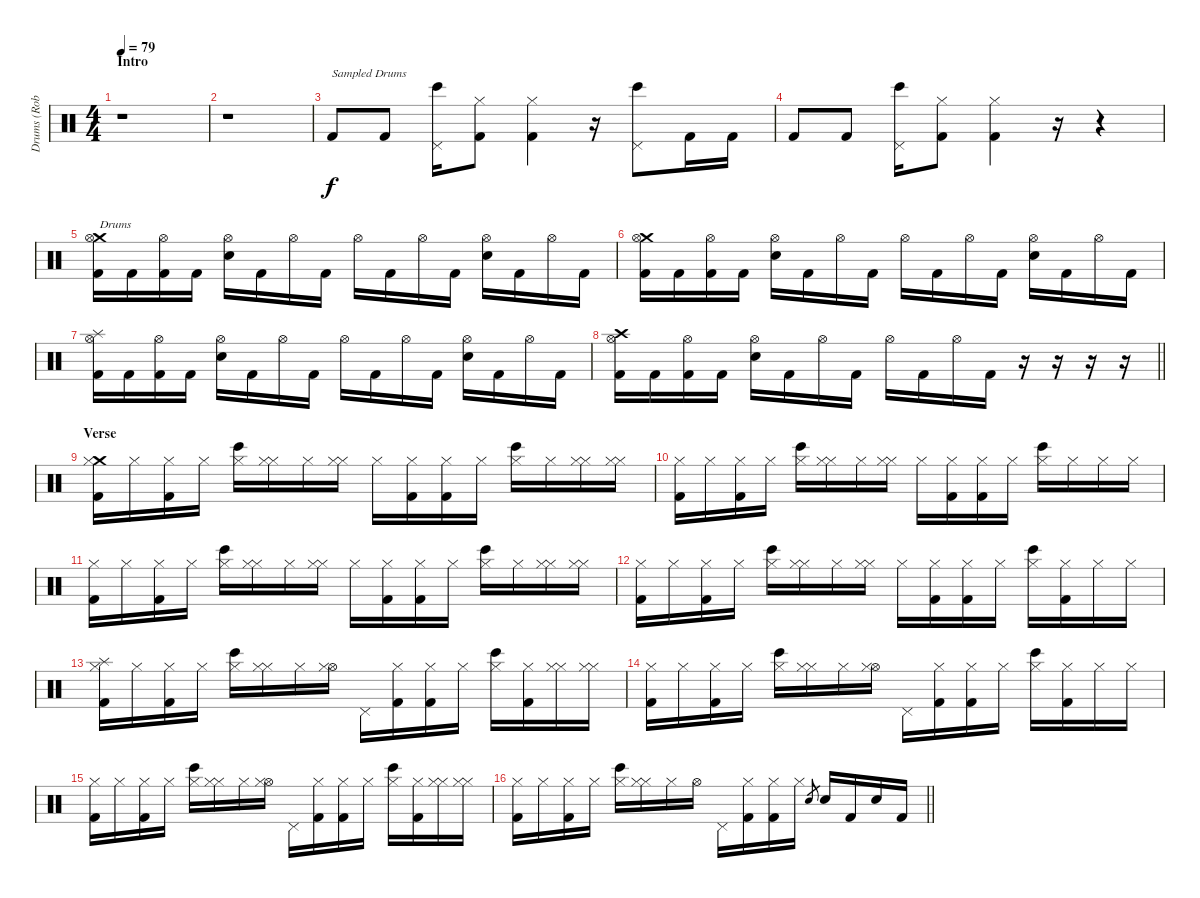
\track ("Drums (Rob Bourdon)" "Drums (Rob") {instrument percussion}
\staff {score}
\articulation defaults
\ts (4 4)
\section ("" "Intro")
\tempo 79
\clef neutral
\ks c
r.1{dy f} |
r.1 |
"Kick (hit) 2".8{txt "Sampled Drums"} "Kick (hit) 2".8 ("Pedal Hi-Hat (hit)" "Bongo High (hit)").16 ("Hi-Hat (closed)" "Kick (hit) 2").8 ("Hi-Hat (closed)" "Kick (hit) 2").4 r.16 ("Pedal Hi-Hat (hit)" "Bongo High (hit)").8 "Kick (hit) 2".16 "Kick (hit) 2".16 |
"Kick (hit) 2".8 "Kick (hit) 2".8 ("Pedal Hi-Hat (hit)" "Bongo High (hit)").16 ("Hi-Hat (closed)" "Kick (hit) 2").8 ("Hi-Hat (closed)" "Kick (hit) 2").4 r.16 r.4 |
("Crash medium (hit)" "Hi-Hat (open)" "Kick (hit) 2").16{txt "Drums"} "Kick (hit) 2".16 ("Hi-Hat (open)" "Kick (hit) 2").16 "Kick (hit) 2".16 ("Hi-Hat (open)" "Electric Snare (hit)").16 "Kick (hit) 2".16 "Hi-Hat (open)".16 "Kick (hit) 2".16 "Hi-Hat (open)".16 "Kick (hit) 2".16 "Hi-Hat (open)".16 "Kick (hit) 2".16 ("Hi-Hat (open)" "Electric Snare (hit)").16 "Kick (hit) 2".16 "Hi-Hat (open)".16 "Kick (hit) 2".16 |
("Crash medium (hit)" "Hi-Hat (open)" "Kick (hit) 2").16 "Kick (hit) 2".16 ("Hi-Hat (open)" "Kick (hit) 2").16 "Kick (hit) 2".16 ("Hi-Hat (open)" "Electric Snare (hit)").16 "Kick (hit) 2".16 "Hi-Hat (open)".16 "Kick (hit) 2".16 "Hi-Hat (open)".16 "Kick (hit) 2".16 "Hi-Hat (open)".16 "Kick (hit) 2".16 ("Hi-Hat (open)" "Electric Snare (hit)").16 "Kick (hit) 2".16 "Hi-Hat (open)".16 "Kick (hit) 2".16 |
("Splash (hit)" "Hi-Hat (open)" "Kick (hit) 2").16 "Kick (hit) 2".16 ("Hi-Hat (open)" "Kick (hit) 2").16 "Kick (hit) 2".16 ("Hi-Hat (open)" "Electric Snare (hit)").16 "Kick (hit) 2".16 "Hi-Hat (open)".16 "Kick (hit) 2".16 "Hi-Hat (open)".16 "Kick (hit) 2".16 "Hi-Hat (open)".16 "Kick (hit) 2".16 ("Hi-Hat (open)" "Electric Snare (hit)").16 "Kick (hit) 2".16 "Hi-Hat (open)".16 "Kick (hit) 2".16 |
\barLineRight lightlight
("Crash high (hit)" "Hi-Hat (open)" "Kick (hit) 2").16 "Kick (hit) 2".16 ("Hi-Hat (open)" "Kick (hit) 2").16 "Kick (hit) 2".16 ("Hi-Hat (open)" "Electric Snare (hit)").16 "Kick (hit) 2".16 "Hi-Hat (open)".16 "Kick (hit) 2".16 "Hi-Hat (open)".16 "Kick (hit) 2".16 "Hi-Hat (open)".16 "Kick (hit) 2".16 r.16 r.16 r.16 r.16 |
\section ("" "Verse")
("Crash medium (hit)" "Hi-Hat (closed)" "Kick (hit) 2").16 "Hi-Hat (closed)".16 ("Hi-Hat (closed)" "Kick (hit) 2").16 "Hi-Hat (closed)".16 ("Hi-Hat (closed)" "Bongo High (hit)").16 ("Hi-Hat (closed)" "Hi-Hat (closed)").16 "Hi-Hat (closed)".16 ("Hi-Hat (closed)" "Hi-Hat (closed)").16 "Hi-Hat (closed)".16 ("Hi-Hat (closed)" "Kick (hit) 2").16 ("Hi-Hat (closed)" "Kick (hit) 2").16 "Hi-Hat (closed)".16 ("Hi-Hat (closed)" "Bongo High (hit)").16 "Hi-Hat (closed)".16 ("Hi-Hat (closed)" "Hi-Hat (closed)").16 ("Hi-Hat (closed)" "Hi-Hat (closed)").16 |
("Hi-Hat (closed)" "Kick (hit) 2").16 "Hi-Hat (closed)".16 ("Hi-Hat (closed)" "Kick (hit) 2").16 "Hi-Hat (closed)".16 ("Hi-Hat (closed)" "Bongo High (hit)").16 ("Hi-Hat (closed)" "Hi-Hat (closed)").16 "Hi-Hat (closed)".16 ("Hi-Hat (closed)" "Hi-Hat (closed)").16 "Hi-Hat (closed)".16 ("Hi-Hat (closed)" "Kick (hit) 2").16 ("Hi-Hat (closed)" "Kick (hit) 2").16 "Hi-Hat (closed)".16 ("Hi-Hat (closed)" "Bongo High (hit)").16 "Hi-Hat (closed)".16 "Hi-Hat (closed)".16 "Hi-Hat (closed)".16 |
("Hi-Hat (closed)" "Kick (hit) 2").16 "Hi-Hat (closed)".16 ("Hi-Hat (closed)" "Kick (hit) 2").16 "Hi-Hat (closed)".16 ("Hi-Hat (closed)" "Bongo High (hit)").16 ("Hi-Hat (closed)" "Hi-Hat (closed)").16 "Hi-Hat (closed)".16 ("Hi-Hat (closed)" "Hi-Hat (closed)").16 "Hi-Hat (closed)".16 ("Hi-Hat (closed)" "Kick (hit) 2").16 ("Hi-Hat (closed)" "Kick (hit) 2").16 "Hi-Hat (closed)".16 ("Hi-Hat (closed)" "Bongo High (hit)").16 "Hi-Hat (closed)".16 ("Hi-Hat (closed)" "Hi-Hat (closed)").16 ("Hi-Hat (closed)" "Hi-Hat (closed)").16 |
("Hi-Hat (closed)" "Kick (hit) 2").16 "Hi-Hat (closed)".16 ("Hi-Hat (closed)" "Kick (hit) 2").16 "Hi-Hat (closed)".16 ("Hi-Hat (closed)" "Bongo High (hit)").16 ("Hi-Hat (closed)" "Hi-Hat (closed)").16 "Hi-Hat (closed)".16 ("Hi-Hat (closed)" "Hi-Hat (closed)").16 "Hi-Hat (closed)".16 ("Hi-Hat (closed)" "Kick (hit) 2").16 ("Hi-Hat (closed)" "Kick (hit) 2").16 "Hi-Hat (closed)".16 ("Hi-Hat (closed)" "Bongo High (hit)").16 ("Hi-Hat (closed)" "Kick (hit) 2").16 "Hi-Hat (closed)".16 "Hi-Hat (closed)".16 |
("Splash (hit)" "Hi-Hat (closed)" "Kick (hit) 2").16 "Hi-Hat (closed)".16 ("Hi-Hat (closed)" "Kick (hit) 2").16 "Hi-Hat (closed)".16 ("Hi-Hat (closed)" "Bongo High (hit)").16 ("Hi-Hat (closed)" "Hi-Hat (closed)").16 "Hi-Hat (closed)".16 ("Hi-Hat (open)" "Hi-Hat (closed)").16 "Pedal Hi-Hat (hit)".16 ("Hi-Hat (closed)" "Kick (hit) 2").16 ("Hi-Hat (closed)" "Kick (hit) 2").16 "Hi-Hat (closed)".16 ("Hi-Hat (closed)" "Bongo High (hit)").16 ("Hi-Hat (closed)" "Kick (hit) 2").16 ("Hi-Hat (closed)" "Hi-Hat (closed)").16 ("Hi-Hat (closed)" "Hi-Hat (closed)").16 |
("Hi-Hat (closed)" "Kick (hit) 2").16 "Hi-Hat (closed)".16 ("Hi-Hat (closed)" "Kick (hit) 2").16 "Hi-Hat (closed)".16 ("Hi-Hat (closed)" "Bongo High (hit)").16 ("Hi-Hat (closed)" "Hi-Hat (closed)").16 "Hi-Hat (closed)".16 ("Hi-Hat (open)" "Hi-Hat (closed)").16 "Pedal Hi-Hat (hit)".16 ("Hi-Hat (closed)" "Kick (hit) 2").16 ("Hi-Hat (closed)" "Kick (hit) 2").16 "Hi-Hat (closed)".16 ("Hi-Hat (closed)" "Bongo High (hit)").16 ("Hi-Hat (closed)" "Kick (hit) 2").16 "Hi-Hat (closed)".16 "Hi-Hat (closed)".16 |
("Hi-Hat (closed)" "Kick (hit) 2").16 "Hi-Hat (closed)".16 ("Hi-Hat (closed)" "Kick (hit) 2").16 "Hi-Hat (closed)".16 ("Hi-Hat (closed)" "Bongo High (hit)").16 ("Hi-Hat (closed)" "Hi-Hat (closed)").16 "Hi-Hat (closed)".16 ("Hi-Hat (open)" "Hi-Hat (closed)").16 "Pedal Hi-Hat (hit)".16 ("Hi-Hat (closed)" "Kick (hit) 2").16 ("Hi-Hat (closed)" "Kick (hit) 2").16 "Hi-Hat (closed)".16 ("Hi-Hat (closed)" "Bongo High (hit)").16 ("Hi-Hat (closed)" "Kick (hit) 2").16 ("Hi-Hat (closed)" "Hi-Hat (closed)").16 ("Hi-Hat (closed)" "Hi-Hat (closed)").16 |
\barLineRight lightlight
("Hi-Hat (closed)" "Kick (hit) 2").16 "Hi-Hat (closed)".16 ("Hi-Hat (closed)" "Kick (hit) 2").16 "Hi-Hat (closed)".16 ("Hi-Hat (closed)" "Bongo High (hit)").16 ("Hi-Hat (closed)" "Hi-Hat (closed)").16 "Hi-Hat (closed)".16 "Hi-Hat (open)".16 "Pedal Hi-Hat (hit)".16 ("Hi-Hat (closed)" "Kick (hit) 2").16 ("Hi-Hat (closed)" "Kick (hit) 2").16 "Hi-Hat (closed)".16 "Electric Snare (hit)".8{gr} "Electric Snare (hit)".16 "Kick (hit) 2".16 "Electric Snare (hit)".16 "Kick (hit) 2".16
